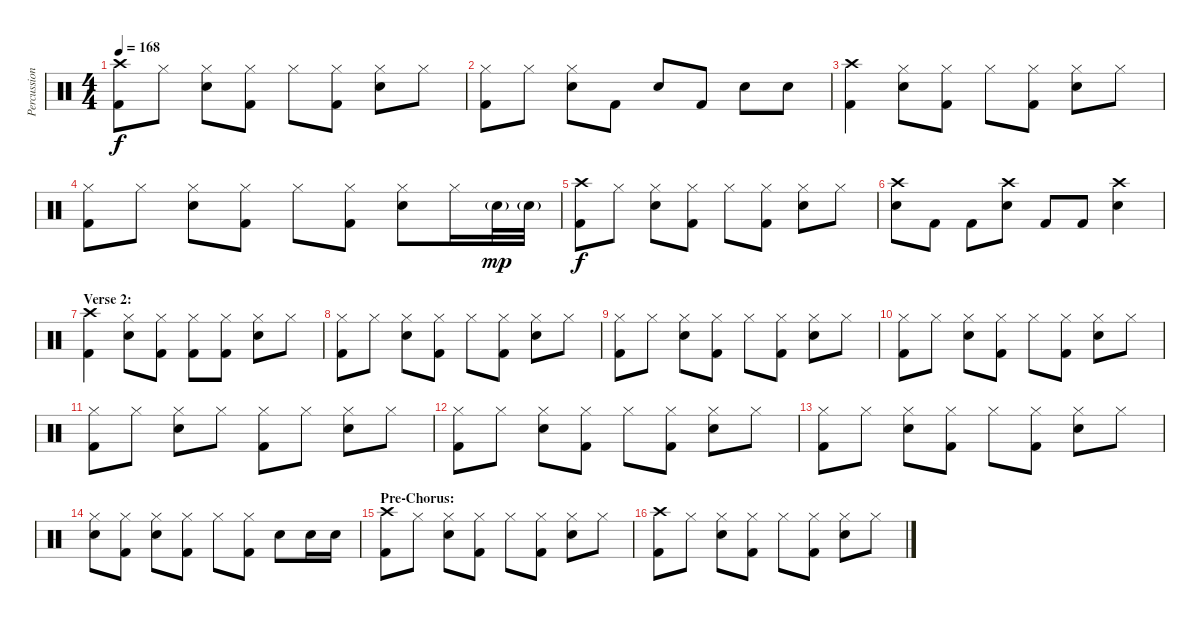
\track ("Percussion" "Percussion") {instrument percussion}
\staff {score}
\articulation defaults
\ts (4 4)
\tempo 168
\clef neutral
\ks c
("Crash high (hit)" "Kick (hit) 2").8{dy f} "Hi-Hat (closed)".8 ("Hi-Hat (closed)" "Snare (hit) 2").8 ("Hi-Hat (closed)" "Kick (hit) 2").8 "Hi-Hat (closed)".8 ("Hi-Hat (closed)" "Kick (hit) 2").8 ("Hi-Hat (closed)" "Snare (hit) 2").8 "Hi-Hat (closed)".8 |
("Hi-Hat (closed)" "Kick (hit) 2").8 "Hi-Hat (closed)".8 ("Hi-Hat (closed)" "Snare (hit) 2").8 "Kick (hit) 2".8 "Snare (hit) 2".8 "Kick (hit) 2".8 "Snare (hit) 2".8 "Snare (hit) 2".8 |
("Crash high (hit)" "Kick (hit) 2").4 ("Hi-Hat (closed)" "Snare (hit) 2").8 ("Hi-Hat (closed)" "Kick (hit) 2").8 "Hi-Hat (closed)".8 ("Hi-Hat (closed)" "Kick (hit) 2").8 ("Hi-Hat (closed)" "Snare (hit) 2").8 "Hi-Hat (closed)".8 |
("Hi-Hat (closed)" "Kick (hit) 2").8 "Hi-Hat (closed)".8 ("Hi-Hat (closed)" "Snare (hit) 2").8 ("Hi-Hat (closed)" "Kick (hit) 2").8 "Hi-Hat (closed)".8 ("Hi-Hat (closed)" "Kick (hit) 2").8 ("Hi-Hat (closed)" "Snare (hit) 2").8 "Hi-Hat (closed)".16 "Snare (hit) 2"{g}.32{dy mp} "Snare (hit) 2"{g}.32 |
("Crash high (hit)" "Kick (hit) 2").8{dy f} "Hi-Hat (closed)".8 ("Hi-Hat (closed)" "Snare (hit) 2").8 ("Hi-Hat (closed)" "Kick (hit) 2").8 "Hi-Hat (closed)".8 ("Hi-Hat (closed)" "Kick (hit) 2").8 ("Hi-Hat (closed)" "Snare (hit) 2").8 "Hi-Hat (closed)".8 |
("Crash high (hit)" "Snare (hit) 2").8 "Kick (hit) 2".8 "Kick (hit) 2".8 ("Crash high (hit)" "Snare (hit) 2").8 "Kick (hit) 2".8 "Kick (hit) 2".8 ("Crash high (hit)" "Snare (hit) 2").4 |
\section ("" "Verse 2:")
("Crash high (hit)" "Kick (hit) 2").4 ("Hi-Hat (closed)" "Snare (hit) 2").8 ("Hi-Hat (closed)" "Kick (hit) 2").8 ("Hi-Hat (closed)" "Kick (hit) 2").8 ("Hi-Hat (closed)" "Kick (hit) 2").8 ("Hi-Hat (closed)" "Snare (hit) 2").8 "Hi-Hat (closed)".8 |
("Hi-Hat (closed)" "Kick (hit) 2").8 "Hi-Hat (closed)".8 ("Hi-Hat (closed)" "Snare (hit) 2").8 ("Hi-Hat (closed)" "Kick (hit) 2").8 "Hi-Hat (closed)".8 ("Hi-Hat (closed)" "Kick (hit) 2").8 ("Hi-Hat (closed)" "Snare (hit) 2").8 "Hi-Hat (closed)".8 |
("Hi-Hat (closed)" "Kick (hit) 2").8 "Hi-Hat (closed)".8 ("Hi-Hat (closed)" "Snare (hit) 2").8 ("Hi-Hat (closed)" "Kick (hit) 2").8 "Hi-Hat (closed)".8 ("Hi-Hat (closed)" "Kick (hit) 2").8 ("Hi-Hat (closed)" "Snare (hit) 2").8 "Hi-Hat (closed)".8 |
("Hi-Hat (closed)" "Kick (hit) 2").8 "Hi-Hat (closed)".8 ("Hi-Hat (closed)" "Snare (hit) 2").8 ("Hi-Hat (closed)" "Kick (hit) 2").8 "Hi-Hat (closed)".8 ("Hi-Hat (closed)" "Kick (hit) 2").8 ("Hi-Hat (closed)" "Snare (hit) 2").8 "Hi-Hat (closed)".8 |
("Hi-Hat (closed)" "Kick (hit) 2").8 "Hi-Hat (closed)".8 ("Hi-Hat (closed)" "Snare (hit) 2").8 "Hi-Hat (closed)".8 ("Hi-Hat (closed)" "Kick (hit) 2").8 "Hi-Hat (closed)".8 ("Hi-Hat (closed)" "Snare (hit) 2").8 "Hi-Hat (closed)".8 |
("Hi-Hat (closed)" "Kick (hit) 2").8 "Hi-Hat (closed)".8 ("Hi-Hat (closed)" "Snare (hit) 2").8 ("Hi-Hat (closed)" "Kick (hit) 2").8 "Hi-Hat (closed)".8 ("Hi-Hat (closed)" "Kick (hit) 2").8 ("Hi-Hat (closed)" "Snare (hit) 2").8 "Hi-Hat (closed)".8 |
("Hi-Hat (closed)" "Kick (hit) 2").8 "Hi-Hat (closed)".8 ("Hi-Hat (closed)" "Snare (hit) 2").8 ("Hi-Hat (closed)" "Kick (hit) 2").8 "Hi-Hat (closed)".8 ("Hi-Hat (closed)" "Kick (hit) 2").8 ("Hi-Hat (closed)" "Snare (hit) 2").8 "Hi-Hat (closed)".8 |
("Hi-Hat (closed)" "Snare (hit) 2").8 ("Hi-Hat (closed)" "Kick (hit) 2").8 ("Hi-Hat (closed)" "Snare (hit) 2").8 ("Hi-Hat (closed)" "Kick (hit) 2").8 "Hi-Hat (closed)".8 ("Hi-Hat (closed)" "Kick (hit) 2").8 "Snare (hit) 2".8 "Snare (hit) 2".16 "Snare (hit) 2".16 |
\section ("" "Pre-Chorus:")
("Crash high (hit)" "Kick (hit) 2").8 "Hi-Hat (closed)".8 ("Hi-Hat (closed)" "Snare (hit) 2").8 ("Hi-Hat (closed)" "Kick (hit) 2").8 "Hi-Hat (closed)".8 ("Hi-Hat (closed)" "Kick (hit) 2").8 ("Hi-Hat (closed)" "Snare (hit) 2").8 "Hi-Hat (closed)".8 |
("Crash high (hit)" "Kick (hit) 2").8 "Hi-Hat (closed)".8 ("Hi-Hat (closed)" "Snare (hit) 2").8 ("Hi-Hat (closed)" "Kick (hit) 2").8 "Hi-Hat (closed)".8 ("Hi-Hat (closed)" "Kick (hit) 2").8 ("Hi-Hat (closed)" "Snare (hit) 2").8 "Hi-Hat (closed)".8
